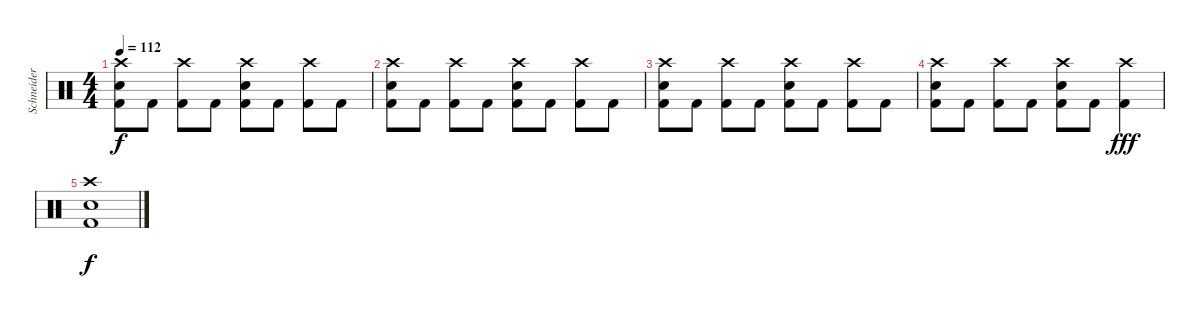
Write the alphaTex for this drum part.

\track ("Schneider - Drums" "Schneider ") {instrument percussion}
\staff {score}
\articulation defaults
\ts (4 4)
\tempo 112
\clef neutral
\ks c
("Crash high (hit)" "Snare (hit) 2" "Kick (hit) 2").8{dy f} "Kick (hit) 2".8 ("Crash high (hit)" "Kick (hit) 2").8 "Kick (hit) 2".8 ("Crash high (hit)" "Snare (hit) 2" "Kick (hit) 2").8 "Kick (hit) 2".8 ("Crash high (hit)" "Kick (hit) 2").8 "Kick (hit) 2".8 |
("Crash high (hit)" "Snare (hit) 2" "Kick (hit) 2").8 "Kick (hit) 2".8 ("Crash high (hit)" "Kick (hit) 2").8 "Kick (hit) 2".8 ("Crash high (hit)" "Snare (hit) 2" "Kick (hit) 2").8 "Kick (hit) 2".8 ("Crash high (hit)" "Kick (hit) 2").8 "Kick (hit) 2".8 |
("Crash high (hit)" "Snare (hit) 2" "Kick (hit) 2").8 "Kick (hit) 2".8 ("Crash high (hit)" "Kick (hit) 2").8 "Kick (hit) 2".8 ("Crash high (hit)" "Snare (hit) 2" "Kick (hit) 2").8 "Kick (hit) 2".8 ("Crash high (hit)" "Kick (hit) 2").8 "Kick (hit) 2".8 |
("Crash high (hit)" "Snare (hit) 2" "Kick (hit) 2").8 "Kick (hit) 2".8 ("Crash high (hit)" "Kick (hit) 2").8 "Kick (hit) 2".8 ("Crash high (hit)" "Snare (hit) 2" "Kick (hit) 2").8 "Kick (hit) 2".8 ("Crash high (hit)" "Kick (hit) 2").4{dy fff} |
("Crash high (hit)" "Snare (hit) 2" "Kick (hit) 2").1{dy f}
